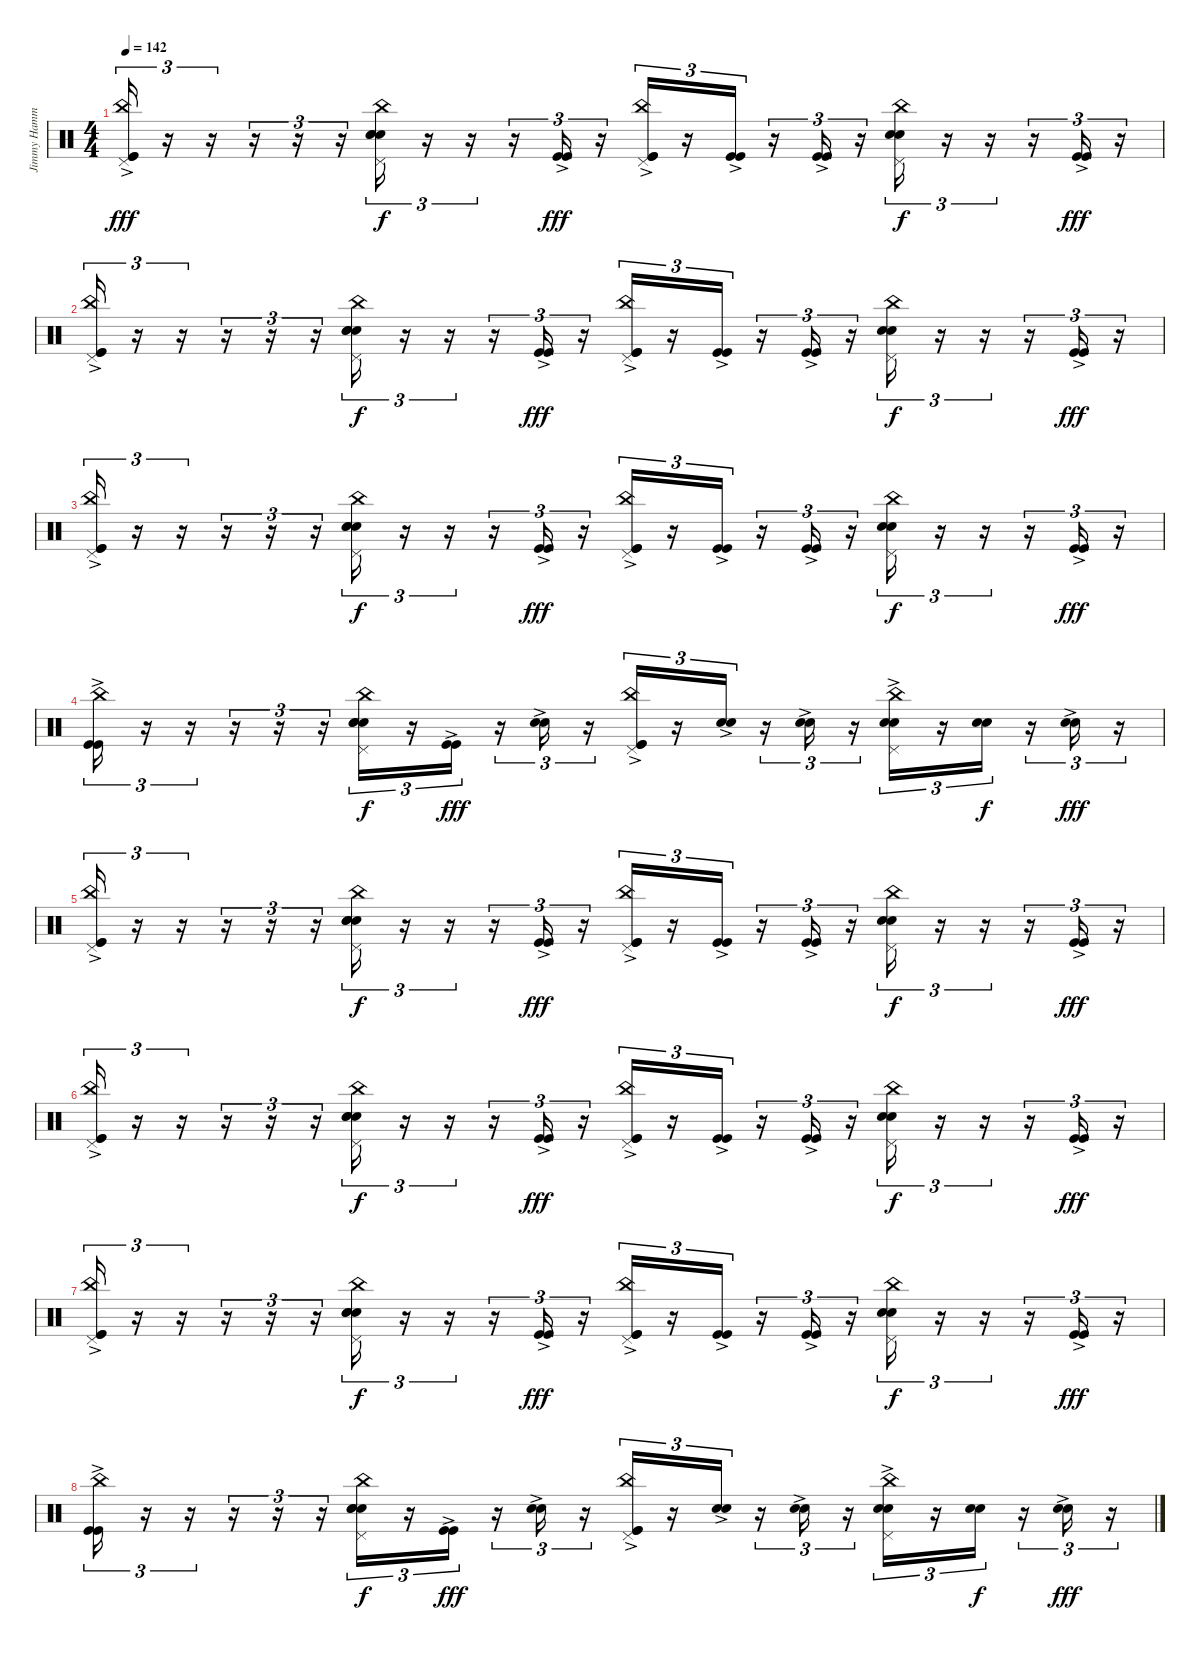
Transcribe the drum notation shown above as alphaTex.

\track ("Jimmy Hammer" "Jimmy Hamm") {instrument percussion}
\staff {score}
\articulation defaults
\ts (4 4)
\tempo 142
\clef neutral
\ks c
("Kick (hit)"{ac} "China (hit)" "Pedal Hi-Hat (hit)" "Kick (hit)"{ac}).16{tu (3 2) dy fff} r.16{tu (3 2)} r.16{tu (3 2)} r.16{tu (3 2)} r.16{tu (3 2)} r.16{tu (3 2)} ("China (hit)" "Electric Snare (hit)" "Electric Snare (hit)" "Electric Snare (hit)" "Pedal Hi-Hat (hit)").16{tu (3 2) dy f} r.16{tu (3 2)} r.16{tu (3 2)} r.16{tu (3 2)} ("Kick (hit)"{ac} "Kick (hit)"{ac}).16{tu (3 2) dy fff} r.16{tu (3 2)} ("China (hit)" "Kick (hit)"{ac} "Kick (hit)"{ac} "Pedal Hi-Hat (hit)").16{tu (3 2)} r.16{tu (3 2)} ("Kick (hit)"{ac} "Kick (hit)"{ac}).16{tu (3 2)} r.16{tu (3 2)} ("Kick (hit)"{ac} "Kick (hit)"{ac}).16{tu (3 2)} r.16{tu (3 2)} ("Electric Snare (hit)" "Electric Snare (hit)" "China (hit)" "Pedal Hi-Hat (hit)").16{tu (3 2) dy f} r.16{tu (3 2)} r.16{tu (3 2)} r.16{tu (3 2)} ("Kick (hit)"{ac} "Kick (hit)"{ac}).16{tu (3 2) dy fff} r.16{tu (3 2)} |
("Kick (hit)"{ac} "China (hit)" "Pedal Hi-Hat (hit)" "Kick (hit)"{ac}).16{tu (3 2)} r.16{tu (3 2)} r.16{tu (3 2)} r.16{tu (3 2)} r.16{tu (3 2)} r.16{tu (3 2)} ("China (hit)" "Electric Snare (hit)" "Electric Snare (hit)" "Electric Snare (hit)" "Pedal Hi-Hat (hit)").16{tu (3 2) dy f} r.16{tu (3 2)} r.16{tu (3 2)} r.16{tu (3 2)} ("Kick (hit)"{ac} "Kick (hit)"{ac}).16{tu (3 2) dy fff} r.16{tu (3 2)} ("China (hit)" "Kick (hit)"{ac} "Kick (hit)"{ac} "Pedal Hi-Hat (hit)").16{tu (3 2)} r.16{tu (3 2)} ("Kick (hit)"{ac} "Kick (hit)"{ac}).16{tu (3 2)} r.16{tu (3 2)} ("Kick (hit)"{ac} "Kick (hit)"{ac}).16{tu (3 2)} r.16{tu (3 2)} ("Electric Snare (hit)" "Electric Snare (hit)" "China (hit)" "Pedal Hi-Hat (hit)").16{tu (3 2) dy f} r.16{tu (3 2)} r.16{tu (3 2)} r.16{tu (3 2)} ("Kick (hit)"{ac} "Kick (hit)"{ac}).16{tu (3 2) dy fff} r.16{tu (3 2)} |
("Kick (hit)"{ac} "China (hit)" "Pedal Hi-Hat (hit)" "Kick (hit)"{ac}).16{tu (3 2)} r.16{tu (3 2)} r.16{tu (3 2)} r.16{tu (3 2)} r.16{tu (3 2)} r.16{tu (3 2)} ("China (hit)" "Electric Snare (hit)" "Electric Snare (hit)" "Electric Snare (hit)" "Pedal Hi-Hat (hit)").16{tu (3 2) dy f} r.16{tu (3 2)} r.16{tu (3 2)} r.16{tu (3 2)} ("Kick (hit)"{ac} "Kick (hit)"{ac}).16{tu (3 2) dy fff} r.16{tu (3 2)} ("China (hit)" "Kick (hit)"{ac} "Kick (hit)"{ac} "Pedal Hi-Hat (hit)").16{tu (3 2)} r.16{tu (3 2)} ("Kick (hit)"{ac} "Kick (hit)"{ac}).16{tu (3 2)} r.16{tu (3 2)} ("Kick (hit)"{ac} "Kick (hit)"{ac}).16{tu (3 2)} r.16{tu (3 2)} ("Electric Snare (hit)" "Electric Snare (hit)" "China (hit)" "Pedal Hi-Hat (hit)").16{tu (3 2) dy f} r.16{tu (3 2)} r.16{tu (3 2)} r.16{tu (3 2)} ("Kick (hit)"{ac} "Kick (hit)"{ac}).16{tu (3 2) dy fff} r.16{tu (3 2)} |
("Kick (hit)"{ac} "China (hit)" "Kick (hit)"{ac}).16{tu (3 2)} r.16{tu (3 2)} r.16{tu (3 2)} r.16{tu (3 2)} r.16{tu (3 2)} r.16{tu (3 2)} ("China (hit)" "Electric Snare (hit)" "Electric Snare (hit)" "Electric Snare (hit)" "Pedal Hi-Hat (hit)").16{tu (3 2) dy f} r.16{tu (3 2)} ("Kick (hit)"{ac} "Kick (hit)"{ac}).16{tu (3 2) dy fff} r.16{tu (3 2)} ("Electric Snare (hit)"{ac} "Electric Snare (hit)"{ac}).16{tu (3 2)} r.16{tu (3 2)} ("China (hit)" "Kick (hit)"{ac} "Kick (hit)"{ac} "Pedal Hi-Hat (hit)").16{tu (3 2)} r.16{tu (3 2)} ("Electric Snare (hit)"{ac} "Electric Snare (hit)"{ac}).16{tu (3 2)} r.16{tu (3 2)} ("Electric Snare (hit)"{ac} "Electric Snare (hit)"{ac}).16{tu (3 2)} r.16{tu (3 2)} ("Electric Snare (hit)"{ac} "Electric Snare (hit)" "China (hit)" "Pedal Hi-Hat (hit)").16{tu (3 2)} r.16{tu (3 2)} ("Electric Snare (hit)" "Electric Snare (hit)").16{tu (3 2) dy f} r.16{tu (3 2)} ("Electric Snare (hit)"{ac} "Electric Snare (hit)"{ac}).16{tu (3 2) dy fff} r.16{tu (3 2)} |
("Kick (hit)"{ac} "China (hit)" "Pedal Hi-Hat (hit)" "Kick (hit)"{ac}).16{tu (3 2)} r.16{tu (3 2)} r.16{tu (3 2)} r.16{tu (3 2)} r.16{tu (3 2)} r.16{tu (3 2)} ("China (hit)" "Electric Snare (hit)" "Electric Snare (hit)" "Electric Snare (hit)" "Pedal Hi-Hat (hit)").16{tu (3 2) dy f} r.16{tu (3 2)} r.16{tu (3 2)} r.16{tu (3 2)} ("Kick (hit)"{ac} "Kick (hit)"{ac}).16{tu (3 2) dy fff} r.16{tu (3 2)} ("China (hit)" "Kick (hit)"{ac} "Kick (hit)"{ac} "Pedal Hi-Hat (hit)").16{tu (3 2)} r.16{tu (3 2)} ("Kick (hit)"{ac} "Kick (hit)"{ac}).16{tu (3 2)} r.16{tu (3 2)} ("Kick (hit)"{ac} "Kick (hit)"{ac}).16{tu (3 2)} r.16{tu (3 2)} ("Electric Snare (hit)" "Electric Snare (hit)" "China (hit)" "Pedal Hi-Hat (hit)").16{tu (3 2) dy f} r.16{tu (3 2)} r.16{tu (3 2)} r.16{tu (3 2)} ("Kick (hit)"{ac} "Kick (hit)"{ac}).16{tu (3 2) dy fff} r.16{tu (3 2)} |
("Kick (hit)"{ac} "China (hit)" "Pedal Hi-Hat (hit)" "Kick (hit)"{ac}).16{tu (3 2)} r.16{tu (3 2)} r.16{tu (3 2)} r.16{tu (3 2)} r.16{tu (3 2)} r.16{tu (3 2)} ("China (hit)" "Electric Snare (hit)" "Electric Snare (hit)" "Electric Snare (hit)" "Pedal Hi-Hat (hit)").16{tu (3 2) dy f} r.16{tu (3 2)} r.16{tu (3 2)} r.16{tu (3 2)} ("Kick (hit)"{ac} "Kick (hit)"{ac}).16{tu (3 2) dy fff} r.16{tu (3 2)} ("China (hit)" "Kick (hit)"{ac} "Kick (hit)"{ac} "Pedal Hi-Hat (hit)").16{tu (3 2)} r.16{tu (3 2)} ("Kick (hit)"{ac} "Kick (hit)"{ac}).16{tu (3 2)} r.16{tu (3 2)} ("Kick (hit)"{ac} "Kick (hit)"{ac}).16{tu (3 2)} r.16{tu (3 2)} ("Electric Snare (hit)" "Electric Snare (hit)" "China (hit)" "Pedal Hi-Hat (hit)").16{tu (3 2) dy f} r.16{tu (3 2)} r.16{tu (3 2)} r.16{tu (3 2)} ("Kick (hit)"{ac} "Kick (hit)"{ac}).16{tu (3 2) dy fff} r.16{tu (3 2)} |
("Kick (hit)"{ac} "China (hit)" "Pedal Hi-Hat (hit)" "Kick (hit)"{ac}).16{tu (3 2)} r.16{tu (3 2)} r.16{tu (3 2)} r.16{tu (3 2)} r.16{tu (3 2)} r.16{tu (3 2)} ("China (hit)" "Electric Snare (hit)" "Electric Snare (hit)" "Electric Snare (hit)" "Pedal Hi-Hat (hit)").16{tu (3 2) dy f} r.16{tu (3 2)} r.16{tu (3 2)} r.16{tu (3 2)} ("Kick (hit)"{ac} "Kick (hit)"{ac}).16{tu (3 2) dy fff} r.16{tu (3 2)} ("China (hit)" "Kick (hit)"{ac} "Kick (hit)"{ac} "Pedal Hi-Hat (hit)").16{tu (3 2)} r.16{tu (3 2)} ("Kick (hit)"{ac} "Kick (hit)"{ac}).16{tu (3 2)} r.16{tu (3 2)} ("Kick (hit)"{ac} "Kick (hit)"{ac}).16{tu (3 2)} r.16{tu (3 2)} ("Electric Snare (hit)" "Electric Snare (hit)" "China (hit)" "Pedal Hi-Hat (hit)").16{tu (3 2) dy f} r.16{tu (3 2)} r.16{tu (3 2)} r.16{tu (3 2)} ("Kick (hit)"{ac} "Kick (hit)"{ac}).16{tu (3 2) dy fff} r.16{tu (3 2)} |
("Kick (hit)"{ac} "China (hit)" "Kick (hit)"{ac}).16{tu (3 2)} r.16{tu (3 2)} r.16{tu (3 2)} r.16{tu (3 2)} r.16{tu (3 2)} r.16{tu (3 2)} ("China (hit)" "Electric Snare (hit)" "Electric Snare (hit)" "Electric Snare (hit)" "Pedal Hi-Hat (hit)").16{tu (3 2) dy f} r.16{tu (3 2)} ("Kick (hit)"{ac} "Kick (hit)"{ac}).16{tu (3 2) dy fff} r.16{tu (3 2)} ("Electric Snare (hit)"{ac} "Electric Snare (hit)"{ac}).16{tu (3 2)} r.16{tu (3 2)} ("China (hit)" "Kick (hit)"{ac} "Kick (hit)"{ac} "Pedal Hi-Hat (hit)").16{tu (3 2)} r.16{tu (3 2)} ("Electric Snare (hit)"{ac} "Electric Snare (hit)"{ac}).16{tu (3 2)} r.16{tu (3 2)} ("Electric Snare (hit)"{ac} "Electric Snare (hit)"{ac}).16{tu (3 2)} r.16{tu (3 2)} ("Electric Snare (hit)"{ac} "Electric Snare (hit)" "China (hit)" "Pedal Hi-Hat (hit)").16{tu (3 2)} r.16{tu (3 2)} ("Electric Snare (hit)" "Electric Snare (hit)").16{tu (3 2) dy f} r.16{tu (3 2)} ("Electric Snare (hit)"{ac} "Electric Snare (hit)"{ac}).16{tu (3 2) dy fff} r.16{tu (3 2)}
